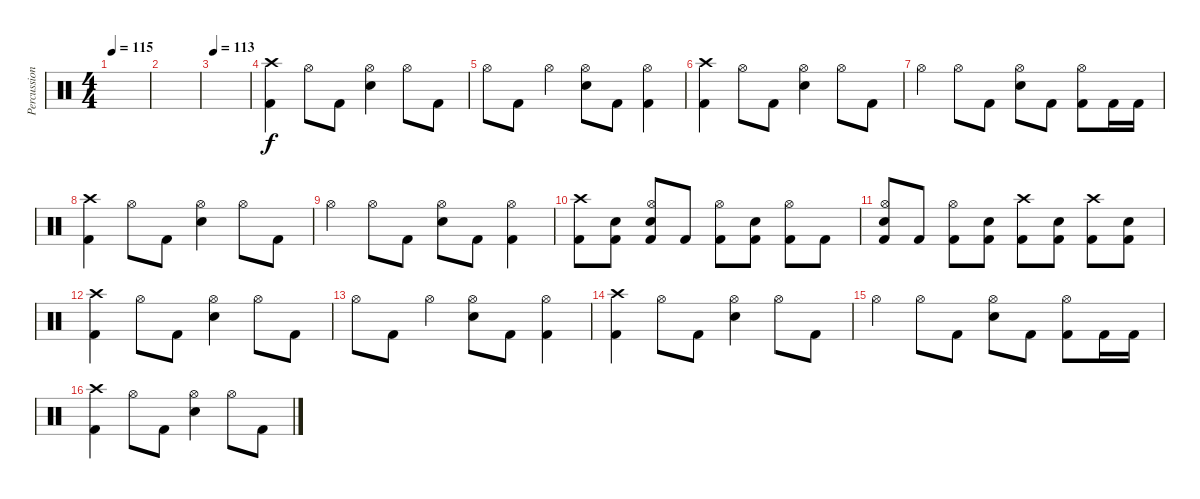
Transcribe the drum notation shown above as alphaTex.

\track ("Percussion" "Percussion") {instrument percussion}
\staff {score}
\articulation defaults
\ts (4 4)
\tempo 115
\clef neutral
\ks c
|
|
\tempo 113
|
("Crash high (hit)" "Kick (hit) 2").4 "Hi-Hat (open)".8 "Kick (hit) 2".8 ("Hi-Hat (open)" "Electric Snare (hit)").4 "Hi-Hat (open)".8 "Kick (hit) 2".8 |
"Hi-Hat (open)".8 "Kick (hit) 2".8 "Hi-Hat (open)".4 ("Hi-Hat (open)" "Electric Snare (hit)").8 "Kick (hit) 2".8 ("Hi-Hat (open)" "Kick (hit) 2").4 |
("Crash high (hit)" "Kick (hit) 2").4 "Hi-Hat (open)".8 "Kick (hit) 2".8 ("Hi-Hat (open)" "Electric Snare (hit)").4 "Hi-Hat (open)".8 "Kick (hit) 2".8 |
"Hi-Hat (open)".4 "Hi-Hat (open)".8 "Kick (hit) 2".8 ("Hi-Hat (open)" "Electric Snare (hit)").8 "Kick (hit) 2".8 ("Hi-Hat (open)" "Kick (hit) 2").8 "Kick (hit) 2".16 "Kick (hit) 2".16 |
("Crash high (hit)" "Kick (hit) 2").4 "Hi-Hat (open)".8 "Kick (hit) 2".8 ("Hi-Hat (open)" "Electric Snare (hit)").4 "Hi-Hat (open)".8 "Kick (hit) 2".8 |
"Hi-Hat (open)".4 "Hi-Hat (open)".8 "Kick (hit) 2".8 ("Hi-Hat (open)" "Electric Snare (hit)").8 "Kick (hit) 2".8 ("Hi-Hat (open)" "Kick (hit) 2").4 |
("Crash high (hit)" "Kick (hit) 2").8 ("Electric Snare (hit)" "Kick (hit) 2").8 ("Hi-Hat (open)" "Electric Snare (hit)" "Kick (hit) 2").8 "Kick (hit) 2".8 ("Hi-Hat (open)" "Kick (hit) 2").8 ("Electric Snare (hit)" "Kick (hit) 2").8 ("Hi-Hat (open)" "Kick (hit) 2").8 "Kick (hit) 2".8 |
("Hi-Hat (open)" "Electric Snare (hit)" "Kick (hit) 2").8 "Kick (hit) 2".8 ("Hi-Hat (open)" "Kick (hit) 2").8 ("Electric Snare (hit)" "Kick (hit) 2").8 ("Crash high (hit)" "Kick (hit) 2").8 ("Electric Snare (hit)" "Kick (hit) 2").8 ("Crash high (hit)" "Kick (hit) 2").8 ("Electric Snare (hit)" "Kick (hit) 2").8 |
("Crash high (hit)" "Kick (hit) 2").4 "Hi-Hat (open)".8 "Kick (hit) 2".8 ("Hi-Hat (open)" "Electric Snare (hit)").4 "Hi-Hat (open)".8 "Kick (hit) 2".8 |
"Hi-Hat (open)".8 "Kick (hit) 2".8 "Hi-Hat (open)".4 ("Hi-Hat (open)" "Electric Snare (hit)").8 "Kick (hit) 2".8 ("Hi-Hat (open)" "Kick (hit) 2").4 |
("Crash high (hit)" "Kick (hit) 2").4 "Hi-Hat (open)".8 "Kick (hit) 2".8 ("Hi-Hat (open)" "Electric Snare (hit)").4 "Hi-Hat (open)".8 "Kick (hit) 2".8 |
"Hi-Hat (open)".4 "Hi-Hat (open)".8 "Kick (hit) 2".8 ("Hi-Hat (open)" "Electric Snare (hit)").8 "Kick (hit) 2".8 ("Hi-Hat (open)" "Kick (hit) 2").8 "Kick (hit) 2".16 "Kick (hit) 2".16 |
("Crash high (hit)" "Kick (hit) 2").4 "Hi-Hat (open)".8 "Kick (hit) 2".8 ("Hi-Hat (open)" "Electric Snare (hit)").4 "Hi-Hat (open)".8 "Kick (hit) 2".8
